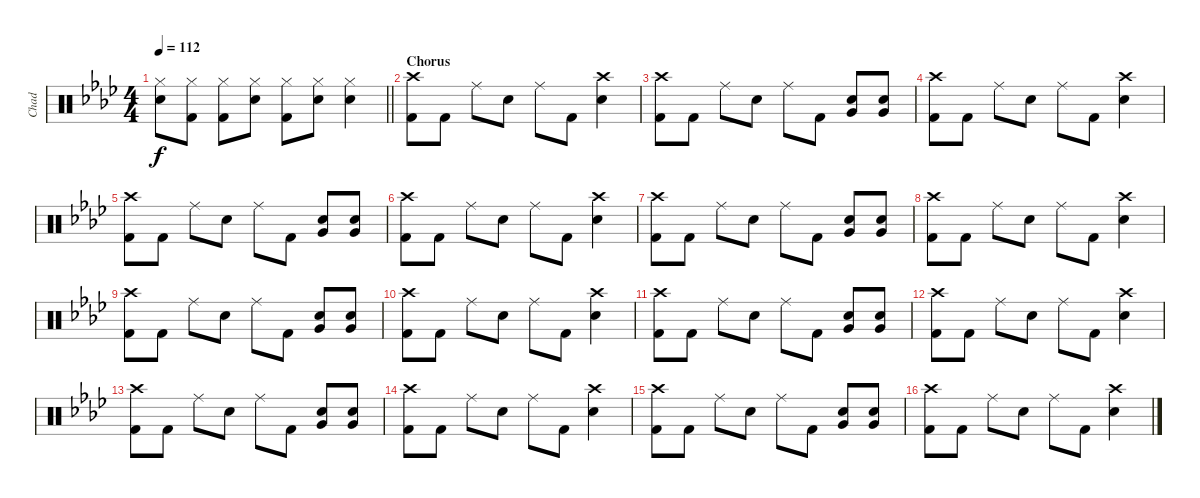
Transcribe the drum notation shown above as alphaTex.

\track ("Chad" "Chad") {instrument percussion}
\staff {score}
\articulation defaults
\ts (4 4)
\tempo 112
\clef neutral
\barLineRight lightlight
\ks ab
("Hi-Hat (closed)" "Snare (hit) 2").8{dy f} ("Hi-Hat (closed)" "Kick (hit) 2").8 ("Hi-Hat (closed)" "Kick (hit) 2").8 ("Hi-Hat (closed)" "Snare (hit) 2").8 ("Hi-Hat (closed)" "Kick (hit) 2").8 ("Hi-Hat (closed)" "Snare (hit) 2").8 ("Hi-Hat (closed)" "Snare (hit) 2").4 |
\section ("" "Chorus")
("Crash high (hit)" "Kick (hit) 2").8 "Kick (hit) 2".8 "Ride (middle)".8 "Snare (hit) 2".8 "Ride (middle)".8 "Kick (hit) 2".8 ("Crash high (hit)" "Snare (hit) 2").4 |
("Crash high (hit)" "Kick (hit) 2").8 "Kick (hit) 2".8 "Ride (middle)".8 "Snare (hit) 2".8 "Ride (middle)".8 "Kick (hit) 2".8 ("Snare (hit) 2" "Very Low Tom (hit)").8 ("Snare (hit) 2" "Very Low Tom (hit)").8 |
("Crash high (hit)" "Kick (hit) 2").8 "Kick (hit) 2".8 "Ride (middle)".8 "Snare (hit) 2".8 "Ride (middle)".8 "Kick (hit) 2".8 ("Crash high (hit)" "Snare (hit) 2").4 |
("Crash high (hit)" "Kick (hit) 2").8 "Kick (hit) 2".8 "Ride (middle)".8 "Snare (hit) 2".8 "Ride (middle)".8 "Kick (hit) 2".8 ("Snare (hit) 2" "Very Low Tom (hit)").8 ("Snare (hit) 2" "Very Low Tom (hit)").8 |
("Crash high (hit)" "Kick (hit) 2").8 "Kick (hit) 2".8 "Ride (middle)".8 "Snare (hit) 2".8 "Ride (middle)".8 "Kick (hit) 2".8 ("Crash high (hit)" "Snare (hit) 2").4 |
("Crash high (hit)" "Kick (hit) 2").8 "Kick (hit) 2".8 "Ride (middle)".8 "Snare (hit) 2".8 "Ride (middle)".8 "Kick (hit) 2".8 ("Snare (hit) 2" "Very Low Tom (hit)").8 ("Snare (hit) 2" "Very Low Tom (hit)").8 |
("Crash high (hit)" "Kick (hit) 2").8 "Kick (hit) 2".8 "Ride (middle)".8 "Snare (hit) 2".8 "Ride (middle)".8 "Kick (hit) 2".8 ("Crash high (hit)" "Snare (hit) 2").4 |
("Crash high (hit)" "Kick (hit) 2").8 "Kick (hit) 2".8 "Ride (middle)".8 "Snare (hit) 2".8 "Ride (middle)".8 "Kick (hit) 2".8 ("Snare (hit) 2" "Very Low Tom (hit)").8 ("Snare (hit) 2" "Very Low Tom (hit)").8 |
("Crash high (hit)" "Kick (hit) 2").8 "Kick (hit) 2".8 "Ride (middle)".8 "Snare (hit) 2".8 "Ride (middle)".8 "Kick (hit) 2".8 ("Crash high (hit)" "Snare (hit) 2").4 |
("Crash high (hit)" "Kick (hit) 2").8 "Kick (hit) 2".8 "Ride (middle)".8 "Snare (hit) 2".8 "Ride (middle)".8 "Kick (hit) 2".8 ("Snare (hit) 2" "Very Low Tom (hit)").8 ("Snare (hit) 2" "Very Low Tom (hit)").8 |
("Crash high (hit)" "Kick (hit) 2").8 "Kick (hit) 2".8 "Ride (middle)".8 "Snare (hit) 2".8 "Ride (middle)".8 "Kick (hit) 2".8 ("Crash high (hit)" "Snare (hit) 2").4 |
("Crash high (hit)" "Kick (hit) 2").8 "Kick (hit) 2".8 "Ride (middle)".8 "Snare (hit) 2".8 "Ride (middle)".8 "Kick (hit) 2".8 ("Snare (hit) 2" "Very Low Tom (hit)").8 ("Snare (hit) 2" "Very Low Tom (hit)").8 |
("Crash high (hit)" "Kick (hit) 2").8 "Kick (hit) 2".8 "Ride (middle)".8 "Snare (hit) 2".8 "Ride (middle)".8 "Kick (hit) 2".8 ("Crash high (hit)" "Snare (hit) 2").4 |
("Crash high (hit)" "Kick (hit) 2").8 "Kick (hit) 2".8 "Ride (middle)".8 "Snare (hit) 2".8 "Ride (middle)".8 "Kick (hit) 2".8 ("Snare (hit) 2" "Very Low Tom (hit)").8 ("Snare (hit) 2" "Very Low Tom (hit)").8 |
("Crash high (hit)" "Kick (hit) 2").8 "Kick (hit) 2".8 "Ride (middle)".8 "Snare (hit) 2".8 "Ride (middle)".8 "Kick (hit) 2".8 ("Crash high (hit)" "Snare (hit) 2").4
